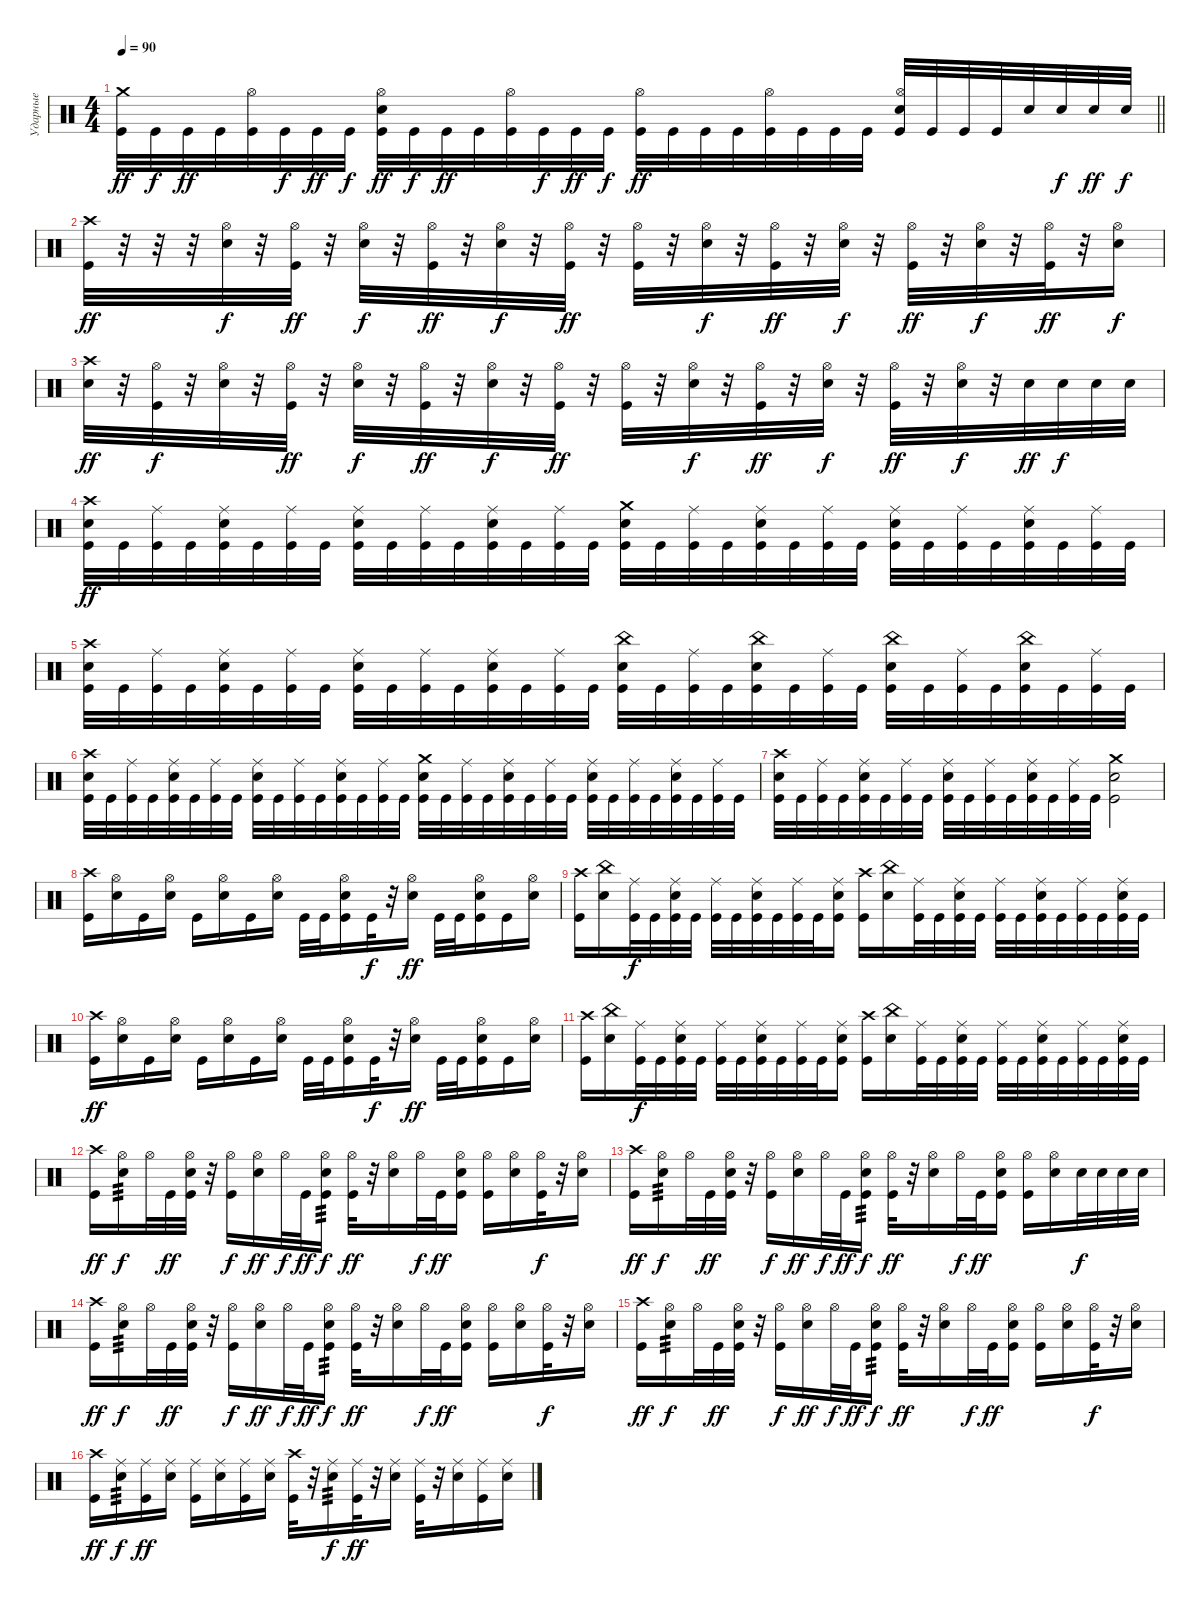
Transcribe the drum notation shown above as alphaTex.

\track ("Ударные" "Ударные") {instrument percussion}
\staff {score}
\articulation defaults
\ts (4 4)
\tempo 90
\clef neutral
\barLineRight lightlight
\ks c
("Crash medium (hit)" "Kick (hit)").32{dy ff} "Kick (hit)".32{dy f} "Kick (hit)".32{dy ff} "Kick (hit)".32 ("Hi-Hat (open)" "Kick (hit)").32 "Kick (hit)".32{dy f} "Kick (hit)".32{dy ff} "Kick (hit)".32{dy f} ("Hi-Hat (open)" "Electric Snare (hit)" "Kick (hit)").32{dy ff} "Kick (hit)".32{dy f} "Kick (hit)".32{dy ff} "Kick (hit)".32 ("Hi-Hat (open)" "Kick (hit)").32 "Kick (hit)".32{dy f} "Kick (hit)".32{dy ff} "Kick (hit)".32{dy f} ("Hi-Hat (open)" "Kick (hit)").32{dy ff} "Kick (hit)".32 "Kick (hit)".32 "Kick (hit)".32 ("Hi-Hat (open)" "Kick (hit)").32 "Kick (hit)".32 "Kick (hit)".32 "Kick (hit)".32 ("Hi-Hat (open)" "Electric Snare (hit)" "Kick (hit)").32 "Kick (hit)".32 "Kick (hit)".32 "Kick (hit)".32 "Electric Snare (hit)".32 "Electric Snare (hit)".32{dy f} "Electric Snare (hit)".32{dy ff} "Electric Snare (hit)".32{dy f} |
("Crash high (hit)" "Kick (hit)").32{dy ff} r.32 r.32 r.32 ("Hi-Hat (open)" "Electric Snare (hit)").32{dy f} r.32 ("Hi-Hat (open)" "Kick (hit)").32{dy ff} r.32 ("Hi-Hat (open)" "Electric Snare (hit)").32{dy f} r.32 ("Hi-Hat (open)" "Kick (hit)").32{dy ff} r.32 ("Hi-Hat (open)" "Electric Snare (hit)").32{dy f} r.32 ("Hi-Hat (open)" "Kick (hit)").32{dy ff} r.32 ("Hi-Hat (open)" "Kick (hit)").32 r.32 ("Hi-Hat (open)" "Electric Snare (hit)").32{dy f} r.32 ("Hi-Hat (open)" "Kick (hit)").32{dy ff} r.32 ("Hi-Hat (open)" "Electric Snare (hit)").32{dy f} r.32 ("Hi-Hat (open)" "Kick (hit)").32{dy ff} r.32 ("Hi-Hat (open)" "Electric Snare (hit)").32{dy f} r.32 ("Hi-Hat (open)" "Kick (hit)").32{dy ff} r.32 ("Hi-Hat (open)" "Electric Snare (hit)").16{dy f} |
("Crash high (hit)" "Electric Snare (hit)").32{dy ff} r.32 ("Hi-Hat (open)" "Kick (hit)").32{dy f} r.32 ("Hi-Hat (open)" "Electric Snare (hit)").32 r.32 ("Hi-Hat (open)" "Kick (hit)").32{dy ff} r.32 ("Hi-Hat (open)" "Electric Snare (hit)").32{dy f} r.32 ("Hi-Hat (open)" "Kick (hit)").32{dy ff} r.32 ("Hi-Hat (open)" "Electric Snare (hit)").32{dy f} r.32 ("Hi-Hat (open)" "Kick (hit)").32{dy ff} r.32 ("Hi-Hat (open)" "Kick (hit)").32 r.32 ("Hi-Hat (open)" "Electric Snare (hit)").32{dy f} r.32 ("Hi-Hat (open)" "Kick (hit)").32{dy ff} r.32 ("Hi-Hat (open)" "Electric Snare (hit)").32{dy f} r.32 ("Hi-Hat (open)" "Kick (hit)").32{dy ff} r.32 ("Hi-Hat (open)" "Electric Snare (hit)").32{dy f} r.32 "Electric Snare (hit)".32{dy ff} "Electric Snare (hit)".32{dy f} "Electric Snare (hit)".32 "Electric Snare (hit)".32 |
("Crash high (hit)" "Electric Snare (hit)" "Kick (hit)").32{dy ff} "Kick (hit)".32 ("Ride (middle)" "Kick (hit)").32 "Kick (hit)".32 ("Ride (middle)" "Electric Snare (hit)" "Kick (hit)").32 "Kick (hit)".32 ("Ride (middle)" "Kick (hit)").32 "Kick (hit)".32 ("Ride (middle)" "Electric Snare (hit)" "Kick (hit)").32 "Kick (hit)".32 ("Ride (middle)" "Kick (hit)").32 "Kick (hit)".32 ("Ride (middle)" "Electric Snare (hit)" "Kick (hit)").32 "Kick (hit)".32 ("Ride (middle)" "Kick (hit)").32 "Kick (hit)".32 ("Crash medium (hit)" "Electric Snare (hit)" "Kick (hit)").32 "Kick (hit)".32 ("Ride (middle)" "Kick (hit)").32 "Kick (hit)".32 ("Ride (middle)" "Electric Snare (hit)" "Kick (hit)").32 "Kick (hit)".32 ("Ride (middle)" "Kick (hit)").32 "Kick (hit)".32 ("Ride (middle)" "Electric Snare (hit)" "Kick (hit)").32 "Kick (hit)".32 ("Ride (middle)" "Kick (hit)").32 "Kick (hit)".32 ("Ride (middle)" "Electric Snare (hit)" "Kick (hit)").32 "Kick (hit)".32 ("Ride (middle)" "Kick (hit)").32 "Kick (hit)".32 |
("Crash high (hit)" "Electric Snare (hit)" "Kick (hit)").32 "Kick (hit)".32 ("Ride (middle)" "Kick (hit)").32 "Kick (hit)".32 ("Ride (middle)" "Electric Snare (hit)" "Kick (hit)").32 "Kick (hit)".32 ("Ride (middle)" "Kick (hit)").32 "Kick (hit)".32 ("Ride (middle)" "Electric Snare (hit)" "Kick (hit)").32 "Kick (hit)".32 ("Ride (middle)" "Kick (hit)").32 "Kick (hit)".32 ("Ride (middle)" "Electric Snare (hit)" "Kick (hit)").32 "Kick (hit)".32 ("Ride (middle)" "Kick (hit)").32 "Kick (hit)".32 ("China (hit)" "Electric Snare (hit)" "Kick (hit)").32 "Kick (hit)".32 ("Ride (middle)" "Kick (hit)").32 "Kick (hit)".32 ("China (hit)" "Electric Snare (hit)" "Kick (hit)").32 "Kick (hit)".32 ("Ride (middle)" "Kick (hit)").32 "Kick (hit)".32 ("China (hit)" "Electric Snare (hit)" "Kick (hit)").32 "Kick (hit)".32 ("Ride (middle)" "Kick (hit)").32 "Kick (hit)".32 ("China (hit)" "Electric Snare (hit)" "Kick (hit)").32 "Kick (hit)".32 ("Ride (middle)" "Kick (hit)").32 "Kick (hit)".32 |
("Crash high (hit)" "Electric Snare (hit)" "Kick (hit)").32 "Kick (hit)".32 ("Ride (middle)" "Kick (hit)").32 "Kick (hit)".32 ("Ride (middle)" "Electric Snare (hit)" "Kick (hit)").32 "Kick (hit)".32 ("Ride (middle)" "Kick (hit)").32 "Kick (hit)".32 ("Ride (middle)" "Electric Snare (hit)" "Kick (hit)").32 "Kick (hit)".32 ("Ride (middle)" "Kick (hit)").32 "Kick (hit)".32 ("Ride (middle)" "Electric Snare (hit)" "Kick (hit)").32 "Kick (hit)".32 ("Ride (middle)" "Kick (hit)").32 "Kick (hit)".32 ("Crash medium (hit)" "Electric Snare (hit)" "Kick (hit)").32 "Kick (hit)".32 ("Ride (middle)" "Kick (hit)").32 "Kick (hit)".32 ("Ride (middle)" "Electric Snare (hit)" "Kick (hit)").32 "Kick (hit)".32 ("Ride (middle)" "Kick (hit)").32 "Kick (hit)".32 ("Ride (middle)" "Electric Snare (hit)" "Kick (hit)").32 "Kick (hit)".32 ("Ride (middle)" "Kick (hit)").32 "Kick (hit)".32 ("Ride (middle)" "Electric Snare (hit)" "Kick (hit)").32 "Kick (hit)".32 ("Ride (middle)" "Kick (hit)").32 "Kick (hit)".32 |
("Crash high (hit)" "Electric Snare (hit)" "Kick (hit)").32 "Kick (hit)".32 ("Ride (middle)" "Kick (hit)").32 "Kick (hit)".32 ("Ride (middle)" "Electric Snare (hit)" "Kick (hit)").32 "Kick (hit)".32 ("Ride (middle)" "Kick (hit)").32 "Kick (hit)".32 ("Ride (middle)" "Electric Snare (hit)" "Kick (hit)").32 "Kick (hit)".32 ("Ride (middle)" "Kick (hit)").32 "Kick (hit)".32 ("Ride (middle)" "Electric Snare (hit)" "Kick (hit)").32 "Kick (hit)".32 ("Ride (middle)" "Kick (hit)").32 "Kick (hit)".32 ("Crash medium (hit)" "Electric Snare (hit)" "Kick (hit)").2 |
("Crash high (hit)" "Kick (hit)").16 ("Hi-Hat (open)" "Electric Snare (hit)").16 "Kick (hit)".16 ("Hi-Hat (open)" "Electric Snare (hit)").16 "Kick (hit)".16 ("Hi-Hat (open)" "Electric Snare (hit)").16 "Kick (hit)".16 ("Hi-Hat (open)" "Electric Snare (hit)").16 "Kick (hit)".32 "Kick (hit)".32 ("Hi-Hat (open)" "Electric Snare (hit)" "Kick (hit)").16 "Kick (hit)".32{dy f} r.32 ("Hi-Hat (open)" "Electric Snare (hit)").16{dy ff} "Kick (hit)".32 "Kick (hit)".32 ("Hi-Hat (open)" "Electric Snare (hit)" "Kick (hit)").16 "Kick (hit)".16 ("Hi-Hat (open)" "Electric Snare (hit)").16 |
("Crash high (hit)" "Kick (hit)").16 ("China (hit)" "Electric Snare (hit)").16 ("Ride (middle)" "Kick (hit)").32{dy f} "Kick (hit)".32 ("Electric Snare (hit)" "Ride (middle)" "Kick (hit)").32 "Kick (hit)".32 ("Ride (middle)" "Kick (hit)").32 "Kick (hit)".32 ("Electric Snare (hit)" "Ride (middle)" "Kick (hit)").32 "Kick (hit)".32 ("Ride (middle)" "Kick (hit)").32 "Kick (hit)".32 ("Electric Snare (hit)" "Ride (middle)" "Kick (hit)").16 ("Crash high (hit)" "Kick (hit)").16 ("China (hit)" "Electric Snare (hit)").16 ("Ride (middle)" "Kick (hit)").32 "Kick (hit)".32 ("Electric Snare (hit)" "Ride (middle)" "Kick (hit)").32 "Kick (hit)".32 ("Ride (middle)" "Kick (hit)").32 "Kick (hit)".32 ("Electric Snare (hit)" "Ride (middle)" "Kick (hit)").32 "Kick (hit)".32 ("Ride (middle)" "Kick (hit)").32 "Kick (hit)".32 ("Electric Snare (hit)" "Ride (middle)" "Kick (hit)").32 "Kick (hit)".32 |
("Crash high (hit)" "Kick (hit)").16{dy ff} ("Hi-Hat (open)" "Electric Snare (hit)").16 "Kick (hit)".16 ("Hi-Hat (open)" "Electric Snare (hit)").16 "Kick (hit)".16 ("Hi-Hat (open)" "Electric Snare (hit)").16 "Kick (hit)".16 ("Hi-Hat (open)" "Electric Snare (hit)").16 "Kick (hit)".32 "Kick (hit)".32 ("Hi-Hat (open)" "Electric Snare (hit)" "Kick (hit)").16 "Kick (hit)".32{dy f} r.32 ("Hi-Hat (open)" "Electric Snare (hit)").16{dy ff} "Kick (hit)".32 "Kick (hit)".32 ("Hi-Hat (open)" "Electric Snare (hit)" "Kick (hit)").16 "Kick (hit)".16 ("Hi-Hat (open)" "Electric Snare (hit)").16 |
("Crash high (hit)" "Kick (hit)").16 ("China (hit)" "Electric Snare (hit)").16 ("Ride (middle)" "Kick (hit)").32{dy f} "Kick (hit)".32 ("Electric Snare (hit)" "Ride (middle)" "Kick (hit)").32 "Kick (hit)".32 ("Ride (middle)" "Kick (hit)").32 "Kick (hit)".32 ("Electric Snare (hit)" "Ride (middle)" "Kick (hit)").32 "Kick (hit)".32 ("Ride (middle)" "Kick (hit)").32 "Kick (hit)".32 ("Electric Snare (hit)" "Ride (middle)" "Kick (hit)").16 ("Crash high (hit)" "Kick (hit)").16 ("China (hit)" "Electric Snare (hit)").16 ("Ride (middle)" "Kick (hit)").32 "Kick (hit)".32 ("Electric Snare (hit)" "Ride (middle)" "Kick (hit)").32 "Kick (hit)".32 ("Ride (middle)" "Kick (hit)").32 "Kick (hit)".32 ("Electric Snare (hit)" "Ride (middle)" "Kick (hit)").32 "Kick (hit)".32 ("Ride (middle)" "Kick (hit)").32 "Kick (hit)".32 ("Electric Snare (hit)" "Ride (middle)" "Kick (hit)").32 "Kick (hit)".32 |
("Crash high (hit)" "Kick (hit)").16{dy ff} ("Electric Snare (hit)" "Hi-Hat (open)").16{tp 3 dy f} "Hi-Hat (open)".32 "Kick (hit)".32{dy ff} ("Hi-Hat (open)" "Electric Snare (hit)" "Kick (hit)").32 r.32 ("Hi-Hat (open)" "Kick (hit)").16{dy f} ("Hi-Hat (open)" "Electric Snare (hit)").16{dy ff} "Hi-Hat (open)".32{dy f} "Kick (hit)".32{dy ff} ("Hi-Hat (open)" "Electric Snare (hit)" "Kick (hit)").16{tp 3 dy f} ("Hi-Hat (open)" "Kick (hit)").32{dy ff} r.32 ("Hi-Hat (open)" "Electric Snare (hit)").16 "Hi-Hat (open)".32{dy f} "Kick (hit)".32{dy ff} ("Hi-Hat (open)" "Electric Snare (hit)" "Kick (hit)").16 ("Hi-Hat (open)" "Kick (hit)").16 ("Hi-Hat (open)" "Electric Snare (hit)").16 ("Hi-Hat (open)" "Kick (hit)").32{dy f} r.32 ("Hi-Hat (open)" "Electric Snare (hit)").16 |
("Crash high (hit)" "Kick (hit)").16{dy ff} ("Electric Snare (hit)" "Hi-Hat (open)").16{tp 3 dy f} "Hi-Hat (open)".32 "Kick (hit)".32{dy ff} ("Hi-Hat (open)" "Electric Snare (hit)" "Kick (hit)").32 r.32 ("Hi-Hat (open)" "Kick (hit)").16{dy f} ("Hi-Hat (open)" "Electric Snare (hit)").16{dy ff} "Hi-Hat (open)".32{dy f} "Kick (hit)".32{dy ff} ("Hi-Hat (open)" "Electric Snare (hit)" "Kick (hit)").16{tp 3 dy f} ("Hi-Hat (open)" "Kick (hit)").32{dy ff} r.32 ("Hi-Hat (open)" "Electric Snare (hit)").16 "Hi-Hat (open)".32{dy f} "Kick (hit)".32{dy ff} ("Hi-Hat (open)" "Electric Snare (hit)" "Kick (hit)").16 ("Hi-Hat (open)" "Kick (hit)").16 ("Hi-Hat (open)" "Electric Snare (hit)").16 "Electric Snare (hit)".32{dy f} "Electric Snare (hit)".32 "Electric Snare (hit)".32 "Electric Snare (hit)".32 |
("Crash high (hit)" "Kick (hit)").16{dy ff} ("Electric Snare (hit)" "Hi-Hat (open)").16{tp 3 dy f} "Hi-Hat (open)".32 "Kick (hit)".32{dy ff} ("Hi-Hat (open)" "Electric Snare (hit)" "Kick (hit)").32 r.32 ("Hi-Hat (open)" "Kick (hit)").16{dy f} ("Hi-Hat (open)" "Electric Snare (hit)").16{dy ff} "Hi-Hat (open)".32{dy f} "Kick (hit)".32{dy ff} ("Hi-Hat (open)" "Electric Snare (hit)" "Kick (hit)").16{tp 3 dy f} ("Hi-Hat (open)" "Kick (hit)").32{dy ff} r.32 ("Hi-Hat (open)" "Electric Snare (hit)").16 "Hi-Hat (open)".32{dy f} "Kick (hit)".32{dy ff} ("Hi-Hat (open)" "Electric Snare (hit)" "Kick (hit)").16 ("Hi-Hat (open)" "Kick (hit)").16 ("Hi-Hat (open)" "Electric Snare (hit)").16 ("Hi-Hat (open)" "Kick (hit)").32{dy f} r.32 ("Hi-Hat (open)" "Electric Snare (hit)").16 |
("Crash high (hit)" "Kick (hit)").16{dy ff} ("Electric Snare (hit)" "Hi-Hat (open)").16{tp 3 dy f} "Hi-Hat (open)".32 "Kick (hit)".32{dy ff} ("Hi-Hat (open)" "Electric Snare (hit)" "Kick (hit)").32 r.32 ("Hi-Hat (open)" "Kick (hit)").16{dy f} ("Hi-Hat (open)" "Electric Snare (hit)").16{dy ff} "Hi-Hat (open)".32{dy f} "Kick (hit)".32{dy ff} ("Hi-Hat (open)" "Electric Snare (hit)" "Kick (hit)").16{tp 3 dy f} ("Hi-Hat (open)" "Kick (hit)").32{dy ff} r.32 ("Hi-Hat (open)" "Electric Snare (hit)").16 "Hi-Hat (open)".32{dy f} "Kick (hit)".32{dy ff} ("Hi-Hat (open)" "Electric Snare (hit)" "Kick (hit)").16 ("Hi-Hat (open)" "Kick (hit)").16 ("Hi-Hat (open)" "Electric Snare (hit)").16 ("Hi-Hat (open)" "Kick (hit)").32{dy f} r.32 ("Hi-Hat (open)" "Electric Snare (hit)").16 |
("Crash high (hit)" "Kick (hit)").16{dy ff} ("Electric Snare (hit)" "Ride (middle)").16{tp 3 dy f} ("Ride (middle)" "Kick (hit)").16{dy ff} ("Ride (middle)" "Electric Snare (hit)").16 ("Ride (middle)" "Kick (hit)").16 ("Ride (middle)" "Electric Snare (hit)").16 ("Ride (middle)" "Kick (hit)").16 ("Ride (middle)" "Electric Snare (hit)").16 ("Crash high (hit)" "Kick (hit)").32 r.32 ("Ride (middle)" "Electric Snare (hit)").16{tp 3 dy f} ("Ride (middle)" "Kick (hit)").32{dy ff} r.32 ("Ride (middle)" "Electric Snare (hit)").16 ("Ride (middle)" "Kick (hit)").32 r.32 ("Ride (middle)" "Electric Snare (hit)").16 ("Ride (middle)" "Kick (hit)").16 ("Ride (middle)" "Electric Snare (hit)").16
